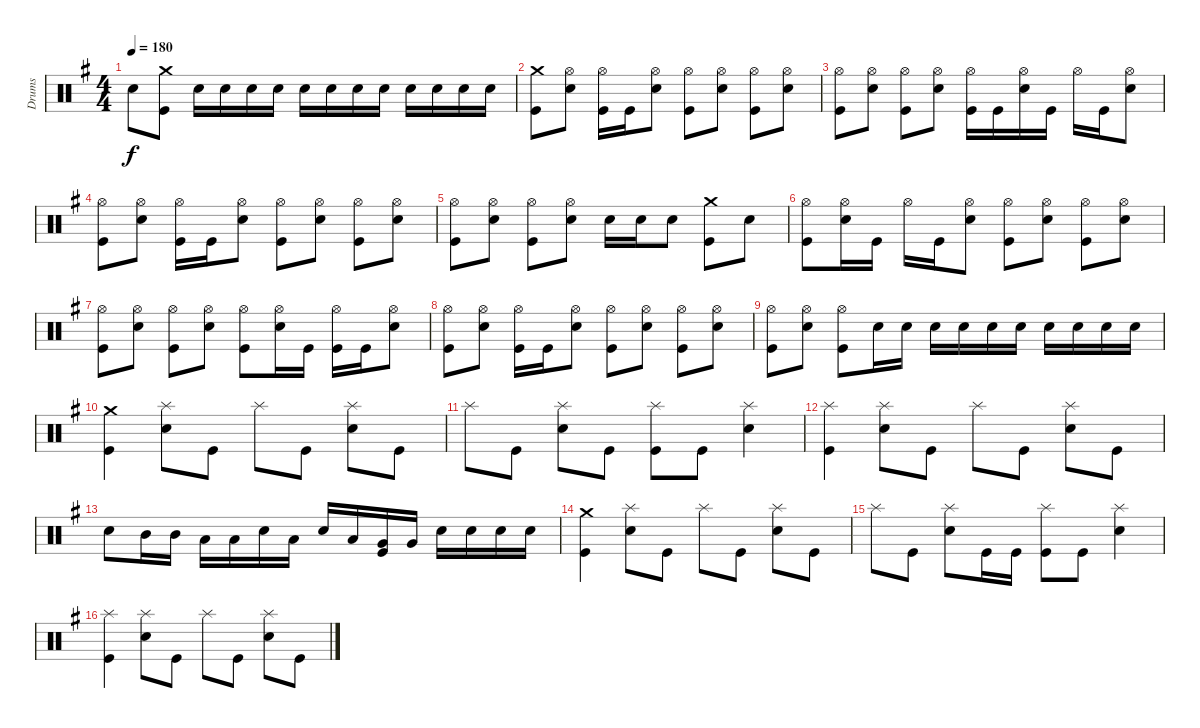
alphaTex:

\track ("Drums" "Drums") {instrument percussion}
\staff {score}
\articulation defaults
\ts (4 4)
\tempo 180
\clef neutral
\ks g "Electric Snare (hit)".8{dy f}
("Kick (hit)" "Crash medium (hit)").8 "Electric Snare (hit)".16 "Electric Snare (hit)".16 "Electric Snare (hit)".16 "Electric Snare (hit)".16 "Electric Snare (hit)".16 "Electric Snare (hit)".16 "Electric Snare (hit)".16 "Electric Snare (hit)".16 "Electric Snare (hit)".16 "Electric Snare (hit)".16 "Electric Snare (hit)".16 "Electric Snare (hit)".16 |
("Kick (hit)" "Crash medium (hit)").8 ("Electric Snare (hit)" "Hi-Hat (open)").8 ("Kick (hit)" "Hi-Hat (open)").16 "Kick (hit)".16 ("Electric Snare (hit)" "Hi-Hat (open)").8 ("Kick (hit)" "Hi-Hat (open)").8 ("Electric Snare (hit)" "Hi-Hat (open)").8 ("Kick (hit)" "Hi-Hat (open)").8 ("Electric Snare (hit)" "Hi-Hat (open)").8 |
("Kick (hit)" "Hi-Hat (open)").8 ("Electric Snare (hit)" "Hi-Hat (open)").8 ("Kick (hit)" "Hi-Hat (open)").8 ("Electric Snare (hit)" "Hi-Hat (open)").8 ("Kick (hit)" "Hi-Hat (open)").16 "Kick (hit)".16 ("Electric Snare (hit)" "Hi-Hat (open)").16 "Kick (hit)".16 "Hi-Hat (open)".16 "Kick (hit)".16 ("Electric Snare (hit)" "Hi-Hat (open)").8 |
("Kick (hit)" "Hi-Hat (open)").8 ("Electric Snare (hit)" "Hi-Hat (open)").8 ("Kick (hit)" "Hi-Hat (open)").16 "Kick (hit)".16 ("Electric Snare (hit)" "Hi-Hat (open)").8 ("Kick (hit)" "Hi-Hat (open)").8 ("Electric Snare (hit)" "Hi-Hat (open)").8 ("Kick (hit)" "Hi-Hat (open)").8 ("Electric Snare (hit)" "Hi-Hat (open)").8 |
("Kick (hit)" "Hi-Hat (open)").8 ("Electric Snare (hit)" "Hi-Hat (open)").8 ("Kick (hit)" "Hi-Hat (open)").8 ("Electric Snare (hit)" "Hi-Hat (open)").8 "Electric Snare (hit)".16 "Electric Snare (hit)".16 "Electric Snare (hit)".8 ("Kick (hit)" "Crash medium (hit)").8 "Electric Snare (hit)".8 |
("Kick (hit)" "Hi-Hat (open)").8 ("Electric Snare (hit)" "Hi-Hat (open)").16 "Kick (hit)".16 "Hi-Hat (open)".16 "Kick (hit)".16 ("Electric Snare (hit)" "Hi-Hat (open)").8 ("Kick (hit)" "Hi-Hat (open)").8 ("Electric Snare (hit)" "Hi-Hat (open)").8 ("Kick (hit)" "Hi-Hat (open)").8 ("Electric Snare (hit)" "Hi-Hat (open)").8 |
("Kick (hit)" "Hi-Hat (open)").8 ("Electric Snare (hit)" "Hi-Hat (open)").8 ("Kick (hit)" "Hi-Hat (open)").8 ("Electric Snare (hit)" "Hi-Hat (open)").8 ("Kick (hit)" "Hi-Hat (open)").8 ("Electric Snare (hit)" "Hi-Hat (open)").16 "Kick (hit)".16 ("Kick (hit)" "Hi-Hat (open)").16 "Kick (hit)".16 ("Electric Snare (hit)" "Hi-Hat (open)").8 |
("Kick (hit)" "Hi-Hat (open)").8 ("Electric Snare (hit)" "Hi-Hat (open)").8 ("Kick (hit)" "Hi-Hat (open)").16 "Kick (hit)".16 ("Electric Snare (hit)" "Hi-Hat (open)").8 ("Kick (hit)" "Hi-Hat (open)").8 ("Electric Snare (hit)" "Hi-Hat (open)").8 ("Kick (hit)" "Hi-Hat (open)").8 ("Electric Snare (hit)" "Hi-Hat (open)").8 |
("Kick (hit)" "Hi-Hat (open)").8 ("Electric Snare (hit)" "Hi-Hat (open)").8 ("Kick (hit)" "Hi-Hat (open)").8 "Electric Snare (hit)".16 "Electric Snare (hit)".16 "Electric Snare (hit)".16 "Electric Snare (hit)".16 "Electric Snare (hit)".16 "Electric Snare (hit)".16 "Electric Snare (hit)".16 "Electric Snare (hit)".16 "Electric Snare (hit)".16 "Electric Snare (hit)".16 |
("Kick (hit)" "Crash medium (hit)").4 ("Electric Snare (hit)" "Splash (hit)").8 "Kick (hit)".8 "Splash (hit)".8 "Kick (hit)".8 ("Electric Snare (hit)" "Splash (hit)").8 "Kick (hit)".8 |
"Splash (hit)".8 "Kick (hit)".8 ("Electric Snare (hit)" "Splash (hit)").8 "Kick (hit)".8 ("Kick (hit)" "Splash (hit)").8 "Kick (hit)".8 ("Electric Snare (hit)" "Splash (hit)").4 |
("Kick (hit)" "Splash (hit)").4 ("Electric Snare (hit)" "Splash (hit)").8 "Kick (hit)".8 "Splash (hit)".8 "Kick (hit)".8 ("Electric Snare (hit)" "Splash (hit)").8 "Kick (hit)".8 |
"Electric Snare (hit)".8 "Mid Tom (hit)".16 "Mid Tom (hit)".16 "Low Tom (hit)".16 "Low Tom (hit)".16 "Electric Snare (hit)".16 "Low Tom (hit)".16 "Electric Snare (hit)".16 "Low Tom (hit)".16 ("Kick (hit)" "Very Low Tom (hit)").16 "Very Low Tom (hit)".16 "Electric Snare (hit)".16 "Electric Snare (hit)".16 "Electric Snare (hit)".16 "Electric Snare (hit)".16 |
("Kick (hit)" "Crash medium (hit)").4 ("Electric Snare (hit)" "Splash (hit)").8 "Kick (hit)".8 "Splash (hit)".8 "Kick (hit)".8 ("Electric Snare (hit)" "Splash (hit)").8 "Kick (hit)".8 |
"Splash (hit)".8 "Kick (hit)".8 ("Electric Snare (hit)" "Splash (hit)").8 "Kick (hit)".16 "Kick (hit)".16 ("Kick (hit)" "Splash (hit)").8 "Kick (hit)".8 ("Electric Snare (hit)" "Splash (hit)").4 |
("Kick (hit)" "Splash (hit)").4 ("Electric Snare (hit)" "Splash (hit)").8 "Kick (hit)".8 "Splash (hit)".8 "Kick (hit)".8 ("Electric Snare (hit)" "Splash (hit)").8 "Kick (hit)".8
